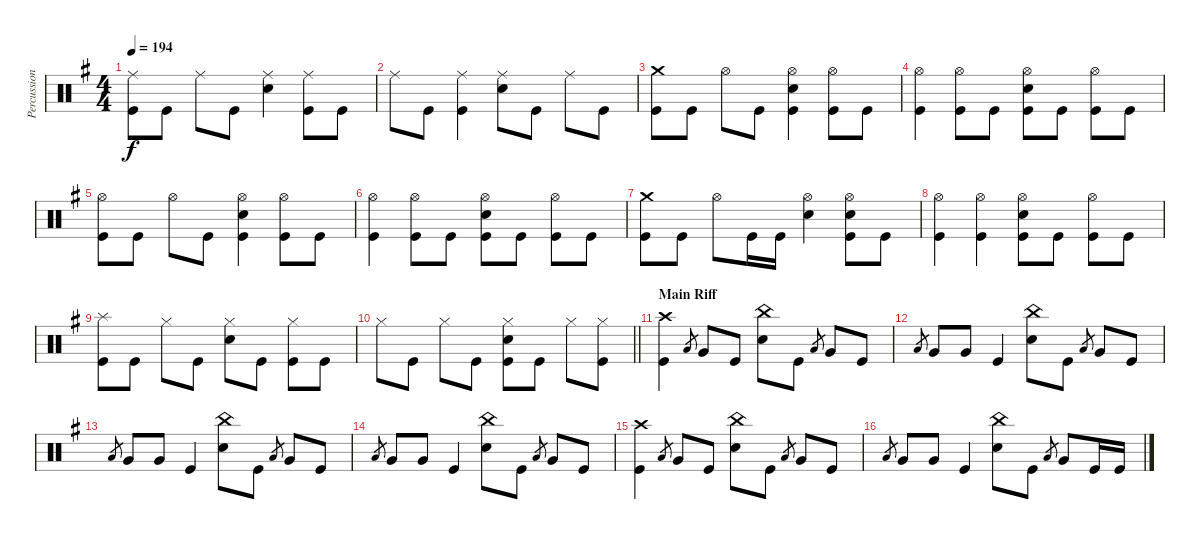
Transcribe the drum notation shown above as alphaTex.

\track ("Percussion" "Percussion") {instrument percussion}
\staff {score}
\articulation defaults
\ts (4 4)
\tempo 194
\clef neutral
\ks g
("Ride (middle)" "Kick (hit)").8{dy f} "Kick (hit)".8 "Ride (middle)".8 "Kick (hit)".8 ("Ride (middle)" "Electric Snare (hit)").4 ("Ride (middle)" "Kick (hit)").8 "Kick (hit)".8 |
"Ride (middle)".8 "Kick (hit)".8 ("Ride (middle)" "Kick (hit)").4 ("Ride (middle)" "Electric Snare (hit)").8 "Kick (hit)".8 "Ride (middle)".8 "Kick (hit)".8 |
("Crash medium (hit)" "Kick (hit)").8 "Kick (hit)".8 "Hi-Hat (open)".8 "Kick (hit)".8 ("Hi-Hat (open)" "Electric Snare (hit)" "Kick (hit)").4 ("Hi-Hat (open)" "Kick (hit)").8 "Kick (hit)".8 |
("Hi-Hat (open)" "Kick (hit)").4 ("Hi-Hat (open)" "Kick (hit)").8 "Kick (hit)".8 ("Hi-Hat (open)" "Electric Snare (hit)" "Kick (hit)").8 "Kick (hit)".8 ("Hi-Hat (open)" "Kick (hit)").8 "Kick (hit)".8 |
("Hi-Hat (open)" "Kick (hit)").8 "Kick (hit)".8 "Hi-Hat (open)".8 "Kick (hit)".8 ("Hi-Hat (open)" "Electric Snare (hit)" "Kick (hit)").4 ("Hi-Hat (open)" "Kick (hit)").8 "Kick (hit)".8 |
("Hi-Hat (open)" "Kick (hit)").4 ("Hi-Hat (open)" "Kick (hit)").8 "Kick (hit)".8 ("Hi-Hat (open)" "Electric Snare (hit)" "Kick (hit)").8 "Kick (hit)".8 ("Hi-Hat (open)" "Kick (hit)").8 "Kick (hit)".8 |
("Crash medium (hit)" "Kick (hit)").8 "Kick (hit)".8 "Hi-Hat (open)".8 "Kick (hit)".16 "Kick (hit)".16 ("Hi-Hat (open)" "Electric Snare (hit)").4 ("Hi-Hat (open)" "Electric Snare (hit)" "Kick (hit)").8 "Kick (hit)".8 |
("Hi-Hat (open)" "Kick (hit)").4 ("Hi-Hat (open)" "Kick (hit)").4 ("Hi-Hat (open)" "Electric Snare (hit)" "Kick (hit)").8 "Kick (hit)".8 ("Hi-Hat (open)" "Kick (hit)").8 "Kick (hit)".8 |
("Splash (hit)" "Kick (hit)").8 "Kick (hit)".8 "Hi-Hat (closed)".8 "Kick (hit)".8 ("Hi-Hat (closed)" "Electric Snare (hit)").8 "Kick (hit)".8 ("Hi-Hat (closed)" "Kick (hit)").8 "Kick (hit)".8 |
\barLineRight lightlight "Hi-Hat (closed)".8 "Kick (hit)".8 "Hi-Hat (closed)".8 "Kick (hit)".8
("Hi-Hat (closed)" "Electric Snare (hit)" "Kick (hit)").8 "Kick (hit)".8 "Hi-Hat (closed)".8 ("Hi-Hat (closed)" "Kick (hit)").8 |
\section ("" "Main Riff")
("Crash high (hit)" "Kick (hit)").4 "Low Tom (hit)".8{gr} "Very Low Tom (hit)".8 "Kick (hit)".8 ("China (hit)" "Electric Snare (hit)").8 "Kick (hit)".8 "Low Tom (hit)".8{gr} "Very Low Tom (hit)".8 "Kick (hit)".8 |
"Low Tom (hit)".8{gr} "Very Low Tom (hit)".8 "Very Low Tom (hit)".8 "Kick (hit)".4 ("China (hit)" "Electric Snare (hit)").8 "Kick (hit)".8 "Low Tom (hit)".8{gr} "Very Low Tom (hit)".8 "Kick (hit)".8 |
"Low Tom (hit)".8{gr} "Very Low Tom (hit)".8 "Very Low Tom (hit)".8 "Kick (hit)".4 ("China (hit)" "Electric Snare (hit)").8 "Kick (hit)".8 "Low Tom (hit)".8{gr} "Very Low Tom (hit)".8 "Kick (hit)".8 |
"Low Tom (hit)".8{gr} "Very Low Tom (hit)".8 "Very Low Tom (hit)".8 "Kick (hit)".4 ("China (hit)" "Electric Snare (hit)").8 "Kick (hit)".8 "Low Tom (hit)".8{gr} "Very Low Tom (hit)".8 "Kick (hit)".8 |
("Crash high (hit)" "Kick (hit)").4 "Low Tom (hit)".8{gr} "Very Low Tom (hit)".8 "Kick (hit)".8 ("China (hit)" "Electric Snare (hit)").8 "Kick (hit)".8 "Low Tom (hit)".8{gr} "Very Low Tom (hit)".8 "Kick (hit)".8 |
"Low Tom (hit)".8{gr} "Very Low Tom (hit)".8 "Very Low Tom (hit)".8 "Kick (hit)".4 ("China (hit)" "Electric Snare (hit)").8 "Kick (hit)".8 "Low Tom (hit)".8{gr} "Very Low Tom (hit)".8 "Kick (hit)".16 "Kick (hit)".16
